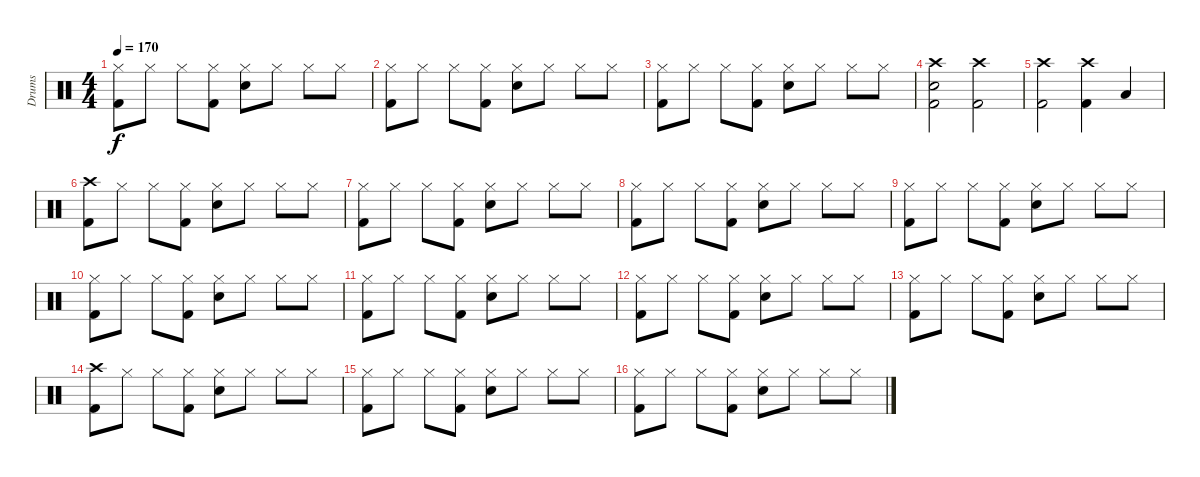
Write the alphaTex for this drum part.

\track ("Drums" "Drums") {instrument percussion}
\staff {score}
\articulation defaults
\ts (4 4)
\tempo 170
\clef neutral
\ks c
("Hi-Hat (closed)" "Kick (hit) 2").8{dy f} "Hi-Hat (closed)".8 "Hi-Hat (closed)".8 ("Hi-Hat (closed)" "Kick (hit) 2").8 ("Hi-Hat (closed)" "Snare (hit) 2").8 "Hi-Hat (closed)".8 "Hi-Hat (closed)".8 "Hi-Hat (closed)".8 |
("Hi-Hat (closed)" "Kick (hit) 2").8 "Hi-Hat (closed)".8 "Hi-Hat (closed)".8 ("Hi-Hat (closed)" "Kick (hit) 2").8 ("Hi-Hat (closed)" "Snare (hit) 2").8 "Hi-Hat (closed)".8 "Hi-Hat (closed)".8 "Hi-Hat (closed)".8 |
("Hi-Hat (closed)" "Kick (hit) 2").8 "Hi-Hat (closed)".8 "Hi-Hat (closed)".8 ("Hi-Hat (closed)" "Kick (hit) 2").8 ("Hi-Hat (closed)" "Snare (hit) 2").8 "Hi-Hat (closed)".8 "Hi-Hat (closed)".8 "Hi-Hat (closed)".8 |
("Crash high (hit)" "Snare (hit) 2" "Kick (hit) 2").2 ("Crash high (hit)" "Kick (hit) 2").2 |
("Crash high (hit)" "Kick (hit) 2").2 ("Crash high (hit)" "Kick (hit) 2").4 "Low Tom (hit)".4 |
("Crash high (hit)" "Kick (hit) 2").8 "Hi-Hat (closed)".8 "Hi-Hat (closed)".8 ("Hi-Hat (closed)" "Kick (hit) 2").8 ("Hi-Hat (closed)" "Snare (hit) 2").8 "Hi-Hat (closed)".8 "Hi-Hat (closed)".8 "Hi-Hat (closed)".8 |
("Hi-Hat (closed)" "Kick (hit) 2").8 "Hi-Hat (closed)".8 "Hi-Hat (closed)".8 ("Hi-Hat (closed)" "Kick (hit) 2").8 ("Hi-Hat (closed)" "Snare (hit) 2").8 "Hi-Hat (closed)".8 "Hi-Hat (closed)".8 "Hi-Hat (closed)".8 |
("Hi-Hat (closed)" "Kick (hit) 2").8 "Hi-Hat (closed)".8 "Hi-Hat (closed)".8 ("Hi-Hat (closed)" "Kick (hit) 2").8 ("Hi-Hat (closed)" "Snare (hit) 2").8 "Hi-Hat (closed)".8 "Hi-Hat (closed)".8 "Hi-Hat (closed)".8 |
("Hi-Hat (closed)" "Kick (hit) 2").8 "Hi-Hat (closed)".8 "Hi-Hat (closed)".8 ("Hi-Hat (closed)" "Kick (hit) 2").8 ("Hi-Hat (closed)" "Snare (hit) 2").8 "Hi-Hat (closed)".8 "Hi-Hat (closed)".8 "Hi-Hat (closed)".8 |
("Hi-Hat (closed)" "Kick (hit) 2").8 "Hi-Hat (closed)".8 "Hi-Hat (closed)".8 ("Hi-Hat (closed)" "Kick (hit) 2").8 ("Hi-Hat (closed)" "Snare (hit) 2").8 "Hi-Hat (closed)".8 "Hi-Hat (closed)".8 "Hi-Hat (closed)".8 |
("Hi-Hat (closed)" "Kick (hit) 2").8 "Hi-Hat (closed)".8 "Hi-Hat (closed)".8 ("Hi-Hat (closed)" "Kick (hit) 2").8 ("Hi-Hat (closed)" "Snare (hit) 2").8 "Hi-Hat (closed)".8 "Hi-Hat (closed)".8 "Hi-Hat (closed)".8 |
("Hi-Hat (closed)" "Kick (hit) 2").8 "Hi-Hat (closed)".8 "Hi-Hat (closed)".8 ("Hi-Hat (closed)" "Kick (hit) 2").8 ("Hi-Hat (closed)" "Snare (hit) 2").8 "Hi-Hat (closed)".8 "Hi-Hat (closed)".8 "Hi-Hat (closed)".8 |
("Hi-Hat (closed)" "Kick (hit) 2").8 "Hi-Hat (closed)".8 "Hi-Hat (closed)".8 ("Hi-Hat (closed)" "Kick (hit) 2").8 ("Hi-Hat (closed)" "Snare (hit) 2").8 "Hi-Hat (closed)".8 "Hi-Hat (closed)".8 "Hi-Hat (closed)".8 |
("Crash high (hit)" "Kick (hit) 2").8 "Hi-Hat (closed)".8 "Hi-Hat (closed)".8 ("Hi-Hat (closed)" "Kick (hit) 2").8 ("Hi-Hat (closed)" "Snare (hit) 2").8 "Hi-Hat (closed)".8 "Hi-Hat (closed)".8 "Hi-Hat (closed)".8 |
("Hi-Hat (closed)" "Kick (hit) 2").8 "Hi-Hat (closed)".8 "Hi-Hat (closed)".8 ("Hi-Hat (closed)" "Kick (hit) 2").8 ("Hi-Hat (closed)" "Snare (hit) 2").8 "Hi-Hat (closed)".8 "Hi-Hat (closed)".8 "Hi-Hat (closed)".8 |
("Hi-Hat (closed)" "Kick (hit) 2").8 "Hi-Hat (closed)".8 "Hi-Hat (closed)".8 ("Hi-Hat (closed)" "Kick (hit) 2").8 ("Hi-Hat (closed)" "Snare (hit) 2").8 "Hi-Hat (closed)".8 "Hi-Hat (closed)".8 "Hi-Hat (closed)".8
